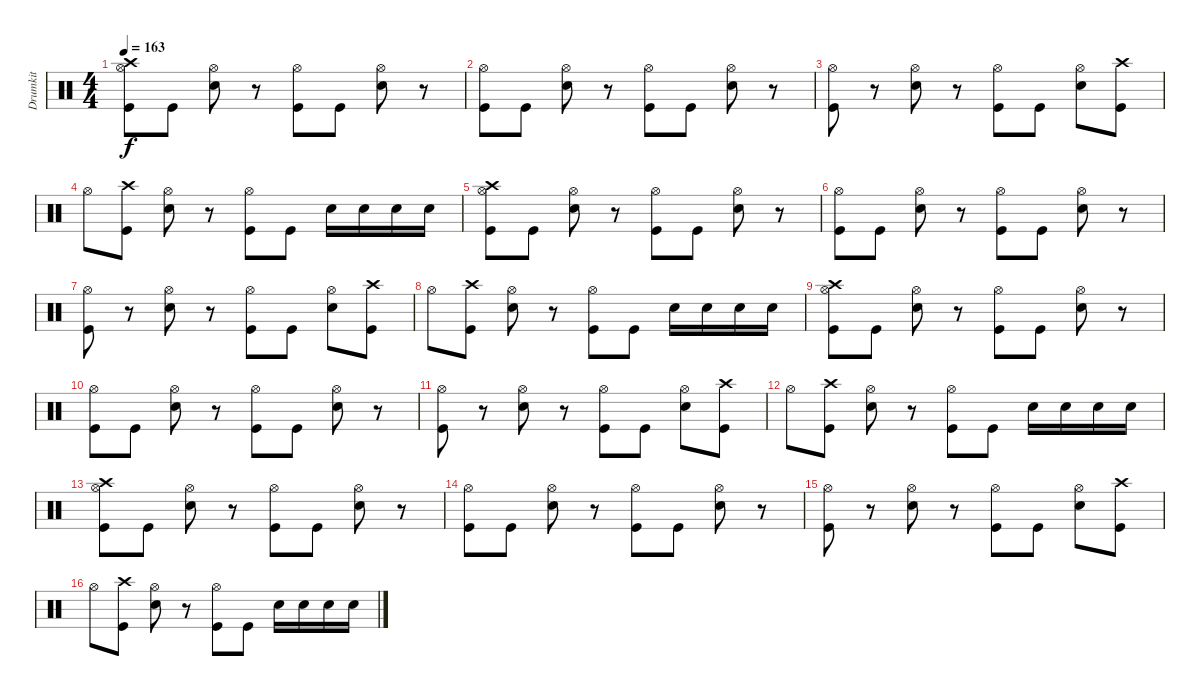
\track ("Drumkit" "Drumkit") {instrument percussion}
\staff {score}
\articulation defaults
\ts (4 4)
\tempo 163
\clef neutral
\ks c
("Crash high (hit)" "Kick (hit)" "Hi-Hat (open)").8{dy f} "Kick (hit)".8 ("Snare (hit) 2" "Hi-Hat (open)").8 r.8 ("Kick (hit)" "Hi-Hat (open)").8 "Kick (hit)".8 ("Snare (hit) 2" "Hi-Hat (open)").8 r.8 |
("Kick (hit)" "Hi-Hat (open)").8 "Kick (hit)".8 ("Snare (hit) 2" "Hi-Hat (open)").8 r.8 ("Kick (hit)" "Hi-Hat (open)").8 "Kick (hit)".8 ("Snare (hit) 2" "Hi-Hat (open)").8 r.8 |
("Kick (hit)" "Hi-Hat (open)").8 r.8 ("Snare (hit) 2" "Hi-Hat (open)").8 r.8 ("Kick (hit)" "Hi-Hat (open)").8 "Kick (hit)".8 ("Snare (hit) 2" "Hi-Hat (open)").8 ("Kick (hit)" "Crash high (hit)").8 |
"Hi-Hat (open)".8 ("Kick (hit)" "Crash high (hit)").8 ("Snare (hit) 2" "Hi-Hat (open)").8 r.8 ("Kick (hit)" "Hi-Hat (open)").8 "Kick (hit)".8 "Snare (hit) 2".16 "Snare (hit) 2".16 "Snare (hit) 2".16 "Snare (hit) 2".16 |
("Crash high (hit)" "Kick (hit)" "Hi-Hat (open)").8 "Kick (hit)".8 ("Snare (hit) 2" "Hi-Hat (open)").8 r.8 ("Kick (hit)" "Hi-Hat (open)").8 "Kick (hit)".8 ("Snare (hit) 2" "Hi-Hat (open)").8 r.8 |
("Kick (hit)" "Hi-Hat (open)").8 "Kick (hit)".8 ("Snare (hit) 2" "Hi-Hat (open)").8 r.8 ("Kick (hit)" "Hi-Hat (open)").8 "Kick (hit)".8 ("Snare (hit) 2" "Hi-Hat (open)").8 r.8 |
("Kick (hit)" "Hi-Hat (open)").8 r.8 ("Snare (hit) 2" "Hi-Hat (open)").8 r.8 ("Kick (hit)" "Hi-Hat (open)").8 "Kick (hit)".8 ("Snare (hit) 2" "Hi-Hat (open)").8 ("Kick (hit)" "Crash high (hit)").8 |
"Hi-Hat (open)".8 ("Kick (hit)" "Crash high (hit)").8 ("Snare (hit) 2" "Hi-Hat (open)").8 r.8 ("Kick (hit)" "Hi-Hat (open)").8 "Kick (hit)".8 "Snare (hit) 2".16 "Snare (hit) 2".16 "Snare (hit) 2".16 "Snare (hit) 2".16 |
("Crash high (hit)" "Kick (hit)" "Hi-Hat (open)").8 "Kick (hit)".8 ("Snare (hit) 2" "Hi-Hat (open)").8 r.8 ("Kick (hit)" "Hi-Hat (open)").8 "Kick (hit)".8 ("Snare (hit) 2" "Hi-Hat (open)").8 r.8 |
("Kick (hit)" "Hi-Hat (open)").8 "Kick (hit)".8 ("Snare (hit) 2" "Hi-Hat (open)").8 r.8 ("Kick (hit)" "Hi-Hat (open)").8 "Kick (hit)".8 ("Snare (hit) 2" "Hi-Hat (open)").8 r.8 |
("Kick (hit)" "Hi-Hat (open)").8 r.8 ("Snare (hit) 2" "Hi-Hat (open)").8 r.8 ("Kick (hit)" "Hi-Hat (open)").8 "Kick (hit)".8 ("Snare (hit) 2" "Hi-Hat (open)").8 ("Kick (hit)" "Crash high (hit)").8 |
"Hi-Hat (open)".8 ("Kick (hit)" "Crash high (hit)").8 ("Snare (hit) 2" "Hi-Hat (open)").8 r.8 ("Kick (hit)" "Hi-Hat (open)").8 "Kick (hit)".8 "Snare (hit) 2".16 "Snare (hit) 2".16 "Snare (hit) 2".16 "Snare (hit) 2".16 |
("Crash high (hit)" "Kick (hit)" "Hi-Hat (open)").8 "Kick (hit)".8 ("Snare (hit) 2" "Hi-Hat (open)").8 r.8 ("Kick (hit)" "Hi-Hat (open)").8 "Kick (hit)".8 ("Snare (hit) 2" "Hi-Hat (open)").8 r.8 |
("Kick (hit)" "Hi-Hat (open)").8 "Kick (hit)".8 ("Snare (hit) 2" "Hi-Hat (open)").8 r.8 ("Kick (hit)" "Hi-Hat (open)").8 "Kick (hit)".8 ("Snare (hit) 2" "Hi-Hat (open)").8 r.8 |
("Kick (hit)" "Hi-Hat (open)").8 r.8 ("Snare (hit) 2" "Hi-Hat (open)").8 r.8 ("Kick (hit)" "Hi-Hat (open)").8 "Kick (hit)".8 ("Snare (hit) 2" "Hi-Hat (open)").8 ("Kick (hit)" "Crash high (hit)").8 |
"Hi-Hat (open)".8 ("Kick (hit)" "Crash high (hit)").8 ("Snare (hit) 2" "Hi-Hat (open)").8 r.8 ("Kick (hit)" "Hi-Hat (open)").8 "Kick (hit)".8 "Snare (hit) 2".16 "Snare (hit) 2".16 "Snare (hit) 2".16 "Snare (hit) 2".16
